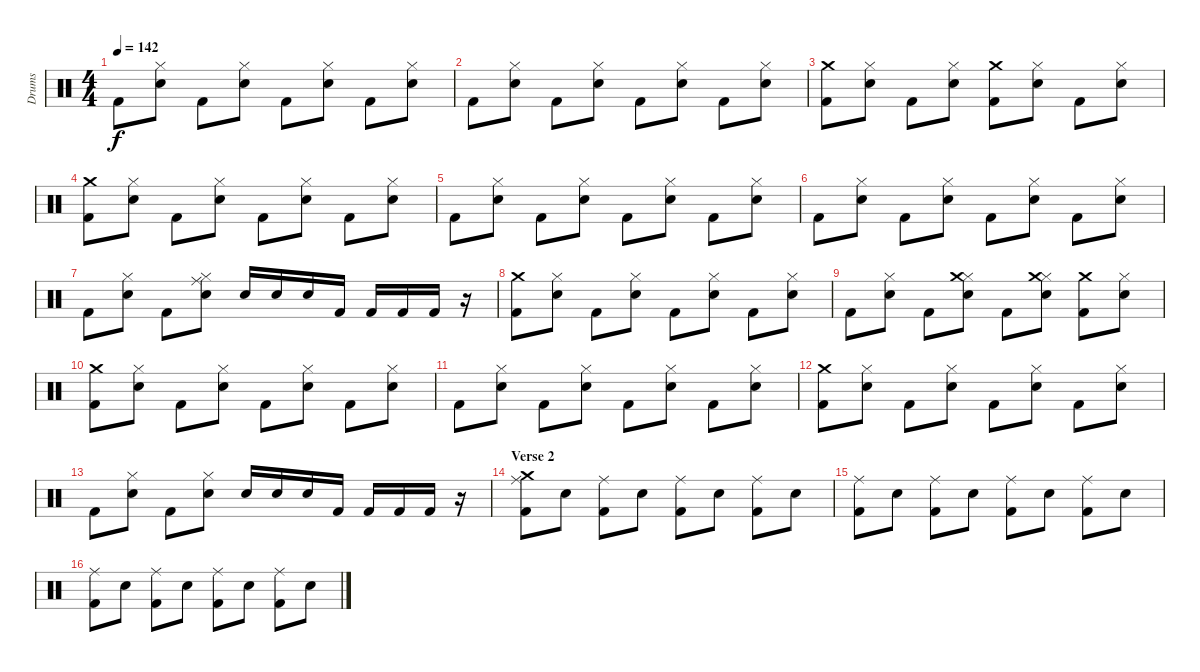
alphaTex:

\track ("Drums" "Drums") {instrument percussion}
\staff {score}
\articulation defaults
\ts (4 4)
\tempo 142
\clef neutral
\ks c "Kick (hit) 2".8{dy f}
("Snare (hit) 2" "Hi-Hat (closed)").8 "Kick (hit) 2".8 ("Snare (hit) 2" "Hi-Hat (closed)").8 "Kick (hit) 2".8 ("Snare (hit) 2" "Hi-Hat (closed)").8 "Kick (hit) 2".8 ("Snare (hit) 2" "Hi-Hat (closed)").8 |
"Kick (hit) 2".8 ("Snare (hit) 2" "Hi-Hat (closed)").8 "Kick (hit) 2".8 ("Snare (hit) 2" "Hi-Hat (closed)").8 "Kick (hit) 2".8 ("Snare (hit) 2" "Hi-Hat (closed)").8 "Kick (hit) 2".8 ("Snare (hit) 2" "Hi-Hat (closed)").8 |
("Kick (hit) 2" "Crash medium (hit)").8 ("Snare (hit) 2" "Hi-Hat (closed)").8 "Kick (hit) 2".8 ("Snare (hit) 2" "Hi-Hat (closed)").8 ("Kick (hit) 2" "Crash medium (hit)").8 ("Snare (hit) 2" "Hi-Hat (closed)").8 "Kick (hit) 2".8 ("Snare (hit) 2" "Hi-Hat (closed)").8 |
("Kick (hit) 2" "Crash medium (hit)").8 ("Snare (hit) 2" "Hi-Hat (closed)").8 "Kick (hit) 2".8 ("Snare (hit) 2" "Hi-Hat (closed)").8 "Kick (hit) 2".8 ("Snare (hit) 2" "Hi-Hat (closed)").8 "Kick (hit) 2".8 ("Snare (hit) 2" "Hi-Hat (closed)").8 |
"Kick (hit) 2".8 ("Snare (hit) 2" "Hi-Hat (closed)").8 "Kick (hit) 2".8 ("Snare (hit) 2" "Hi-Hat (closed)").8 "Kick (hit) 2".8 ("Snare (hit) 2" "Hi-Hat (closed)").8 "Kick (hit) 2".8 ("Snare (hit) 2" "Hi-Hat (closed)").8 |
"Kick (hit) 2".8 ("Snare (hit) 2" "Hi-Hat (closed)").8 "Kick (hit) 2".8 ("Snare (hit) 2" "Hi-Hat (closed)").8 "Kick (hit) 2".8 ("Snare (hit) 2" "Hi-Hat (closed)").8 "Kick (hit) 2".8 ("Snare (hit) 2" "Hi-Hat (closed)").8 |
"Kick (hit) 2".8 ("Snare (hit) 2" "Hi-Hat (closed)").8 "Kick (hit) 2".8 ("Snare (hit) 2" "Hi-Hat (closed)" "Ride (middle)").8 "Snare (hit) 2".16 "Snare (hit) 2".16 "Snare (hit) 2".16 "Kick (hit) 2".16 "Kick (hit) 2".16 "Kick (hit) 2".16 "Kick (hit) 2".16 r.16 |
("Kick (hit) 2" "Crash medium (hit)").8 ("Snare (hit) 2" "Hi-Hat (closed)").8 "Kick (hit) 2".8 ("Snare (hit) 2" "Hi-Hat (closed)").8 "Kick (hit) 2".8 ("Snare (hit) 2" "Hi-Hat (closed)").8 "Kick (hit) 2".8 ("Snare (hit) 2" "Hi-Hat (closed)").8 |
"Kick (hit) 2".8 ("Snare (hit) 2" "Hi-Hat (closed)").8 "Kick (hit) 2".8 ("Snare (hit) 2" "Hi-Hat (closed)" "Crash medium (hit)").8 "Kick (hit) 2".8 ("Snare (hit) 2" "Hi-Hat (closed)" "Crash medium (hit)").8 ("Kick (hit) 2" "Crash medium (hit)").8 ("Snare (hit) 2" "Hi-Hat (closed)").8 |
("Kick (hit) 2" "Crash medium (hit)").8 ("Snare (hit) 2" "Hi-Hat (closed)").8 "Kick (hit) 2".8 ("Snare (hit) 2" "Hi-Hat (closed)").8 "Kick (hit) 2".8 ("Snare (hit) 2" "Hi-Hat (closed)").8 "Kick (hit) 2".8 ("Snare (hit) 2" "Hi-Hat (closed)").8 |
"Kick (hit) 2".8 ("Snare (hit) 2" "Hi-Hat (closed)").8 "Kick (hit) 2".8 ("Snare (hit) 2" "Hi-Hat (closed)").8 "Kick (hit) 2".8 ("Snare (hit) 2" "Hi-Hat (closed)").8 "Kick (hit) 2".8 ("Snare (hit) 2" "Hi-Hat (closed)").8 |
("Kick (hit) 2" "Crash medium (hit)").8 ("Snare (hit) 2" "Hi-Hat (closed)").8 "Kick (hit) 2".8 ("Snare (hit) 2" "Hi-Hat (closed)").8 "Kick (hit) 2".8 ("Snare (hit) 2" "Hi-Hat (closed)").8 "Kick (hit) 2".8 ("Snare (hit) 2" "Hi-Hat (closed)").8 |
"Kick (hit) 2".8 ("Snare (hit) 2" "Hi-Hat (closed)").8 "Kick (hit) 2".8 ("Snare (hit) 2" "Hi-Hat (closed)").8 "Snare (hit) 2".16 "Snare (hit) 2".16 "Snare (hit) 2".16 "Kick (hit) 2".16 "Kick (hit) 2".16 "Kick (hit) 2".16 "Kick (hit) 2".16 r.16 |
\section ("" "Verse 2")
("Kick (hit) 2" "Ride (middle)" "Crash medium (hit)").8 "Snare (hit) 2".8 ("Kick (hit) 2" "Ride (middle)").8 "Snare (hit) 2".8 ("Kick (hit) 2" "Ride (middle)").8 "Snare (hit) 2".8 ("Kick (hit) 2" "Ride (middle)").8 "Snare (hit) 2".8 |
("Kick (hit) 2" "Ride (middle)").8 "Snare (hit) 2".8 ("Kick (hit) 2" "Ride (middle)").8 "Snare (hit) 2".8 ("Kick (hit) 2" "Ride (middle)").8 "Snare (hit) 2".8 ("Kick (hit) 2" "Ride (middle)").8 "Snare (hit) 2".8 |
("Kick (hit) 2" "Ride (middle)").8 "Snare (hit) 2".8 ("Kick (hit) 2" "Ride (middle)").8 "Snare (hit) 2".8 ("Kick (hit) 2" "Ride (middle)").8 "Snare (hit) 2".8 ("Kick (hit) 2" "Ride (middle)").8 "Snare (hit) 2".8
